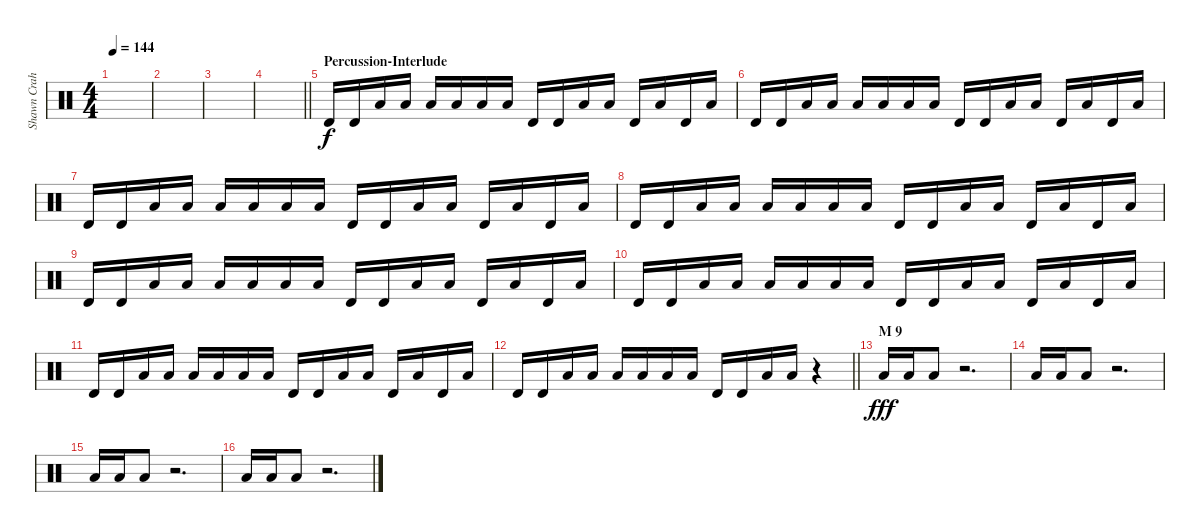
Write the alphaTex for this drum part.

\track ("Shawn Crahan" "Shawn Crah") {instrument percussion}
\staff {score}
\articulation defaults
\ts (4 4)
\tempo 144
\clef neutral
\ks c
|
|
|
\barLineRight lightlight
|
\section ("" "Percussion-Interlude")
"Timbale high (hit)".16 "Timbale high (hit)".16 "Low Floor Tom (hit)".16 "Low Floor Tom (hit)".16 "Low Floor Tom (hit)".16 "Low Floor Tom (hit)".16 "Low Floor Tom (hit)".16 "Low Floor Tom (hit)".16 "Timbale high (hit)".16 "Timbale high (hit)".16 "Low Floor Tom (hit)".16 "Low Floor Tom (hit)".16 "Timbale high (hit)".16 "Low Floor Tom (hit)".16 "Timbale high (hit)".16 "Low Floor Tom (hit)".16 |
"Timbale high (hit)".16 "Timbale high (hit)".16 "Low Floor Tom (hit)".16 "Low Floor Tom (hit)".16 "Low Floor Tom (hit)".16 "Low Floor Tom (hit)".16 "Low Floor Tom (hit)".16 "Low Floor Tom (hit)".16 "Timbale high (hit)".16 "Timbale high (hit)".16 "Low Floor Tom (hit)".16 "Low Floor Tom (hit)".16 "Timbale high (hit)".16 "Low Floor Tom (hit)".16 "Timbale high (hit)".16 "Low Floor Tom (hit)".16 |
"Timbale high (hit)".16 "Timbale high (hit)".16 "Low Floor Tom (hit)".16 "Low Floor Tom (hit)".16 "Low Floor Tom (hit)".16 "Low Floor Tom (hit)".16 "Low Floor Tom (hit)".16 "Low Floor Tom (hit)".16 "Timbale high (hit)".16 "Timbale high (hit)".16 "Low Floor Tom (hit)".16 "Low Floor Tom (hit)".16 "Timbale high (hit)".16 "Low Floor Tom (hit)".16 "Timbale high (hit)".16 "Low Floor Tom (hit)".16 |
"Timbale high (hit)".16 "Timbale high (hit)".16 "Low Floor Tom (hit)".16 "Low Floor Tom (hit)".16 "Low Floor Tom (hit)".16 "Low Floor Tom (hit)".16 "Low Floor Tom (hit)".16 "Low Floor Tom (hit)".16 "Timbale high (hit)".16 "Timbale high (hit)".16 "Low Floor Tom (hit)".16 "Low Floor Tom (hit)".16 "Timbale high (hit)".16 "Low Floor Tom (hit)".16 "Timbale high (hit)".16 "Low Floor Tom (hit)".16 |
"Timbale high (hit)".16 "Timbale high (hit)".16 "Low Floor Tom (hit)".16 "Low Floor Tom (hit)".16 "Low Floor Tom (hit)".16 "Low Floor Tom (hit)".16 "Low Floor Tom (hit)".16 "Low Floor Tom (hit)".16 "Timbale high (hit)".16 "Timbale high (hit)".16 "Low Floor Tom (hit)".16 "Low Floor Tom (hit)".16 "Timbale high (hit)".16 "Low Floor Tom (hit)".16 "Timbale high (hit)".16 "Low Floor Tom (hit)".16 |
"Timbale high (hit)".16 "Timbale high (hit)".16 "Low Floor Tom (hit)".16 "Low Floor Tom (hit)".16 "Low Floor Tom (hit)".16 "Low Floor Tom (hit)".16 "Low Floor Tom (hit)".16 "Low Floor Tom (hit)".16 "Timbale high (hit)".16 "Timbale high (hit)".16 "Low Floor Tom (hit)".16 "Low Floor Tom (hit)".16 "Timbale high (hit)".16 "Low Floor Tom (hit)".16 "Timbale high (hit)".16 "Low Floor Tom (hit)".16 |
"Timbale high (hit)".16 "Timbale high (hit)".16 "Low Floor Tom (hit)".16 "Low Floor Tom (hit)".16 "Low Floor Tom (hit)".16 "Low Floor Tom (hit)".16 "Low Floor Tom (hit)".16 "Low Floor Tom (hit)".16 "Timbale high (hit)".16 "Timbale high (hit)".16 "Low Floor Tom (hit)".16 "Low Floor Tom (hit)".16 "Timbale high (hit)".16 "Low Floor Tom (hit)".16 "Timbale high (hit)".16 "Low Floor Tom (hit)".16 |
\barLineRight lightlight "Timbale high (hit)".16 "Timbale high (hit)".16 "Low Floor Tom (hit)".16 "Low Floor Tom (hit)".16 "Low Floor Tom (hit)".16 "Low Floor Tom (hit)".16 "Low Floor Tom (hit)".16 "Low Floor Tom (hit)".16 "Timbale high (hit)".16 "Timbale high (hit)".16 "Low Floor Tom (hit)".16 "Low Floor Tom (hit)".16
r.4 |
\section ("" "M 9")
"Low Floor Tom (hit)".16{dy fff} "Low Floor Tom (hit)".16 "Low Floor Tom (hit)".8 r.2{d} |
"Low Floor Tom (hit)".16 "Low Floor Tom (hit)".16 "Low Floor Tom (hit)".8 r.2{d} |
"Low Floor Tom (hit)".16 "Low Floor Tom (hit)".16 "Low Floor Tom (hit)".8 r.2{d} |
"Low Floor Tom (hit)".16 "Low Floor Tom (hit)".16 "Low Floor Tom (hit)".8 r.2{d}
